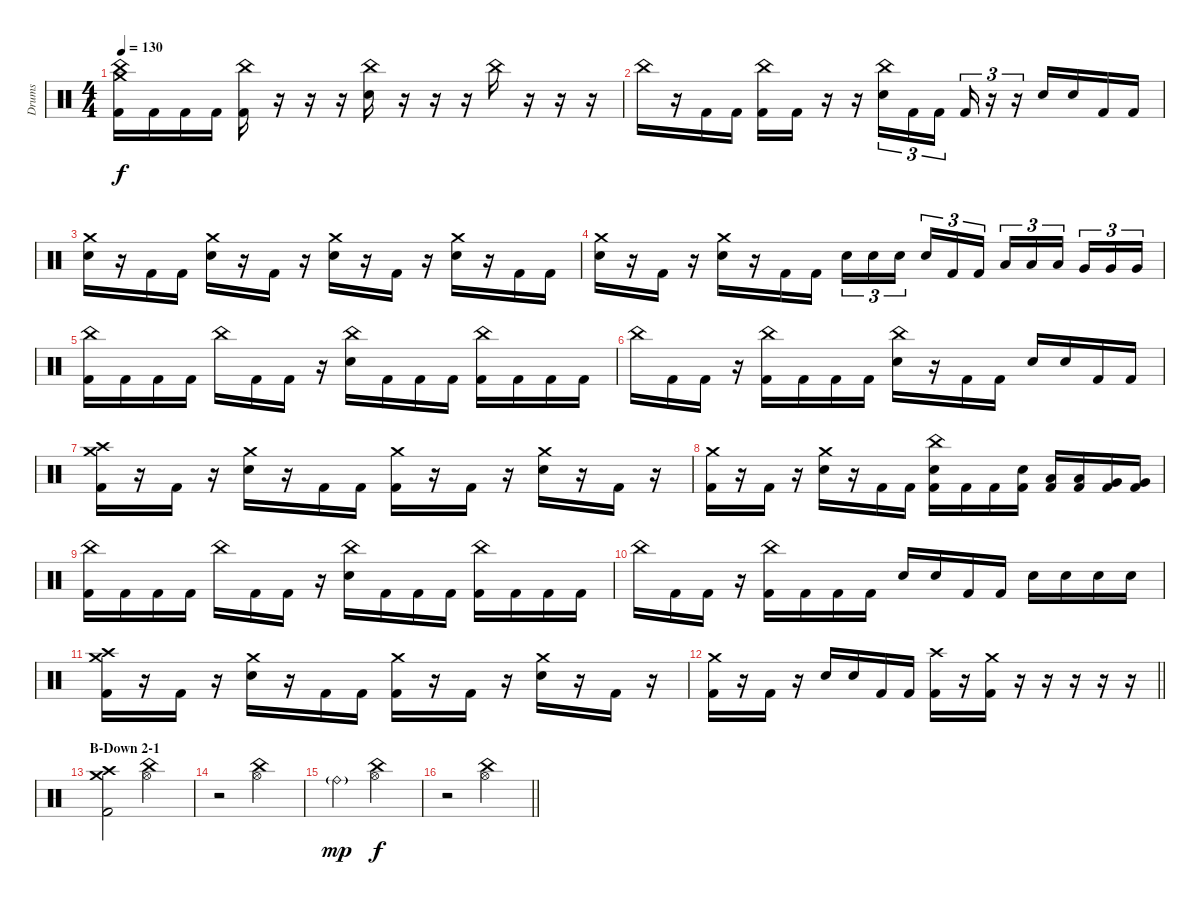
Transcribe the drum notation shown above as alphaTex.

\track ("Drums" "Drums") {instrument percussion}
\staff {score}
\articulation defaults
\ts (4 4)
\tempo 130
\clef neutral
\ks c
("Crash medium (hit)" "China (hit)" "Kick (hit) 2").16{dy f} "Kick (hit) 2".16 "Kick (hit) 2".16 "Kick (hit) 2".16 ("China (hit)" "Kick (hit) 2").16 r.16 r.16 r.16 ("China (hit)" "Electric Snare (hit)").16 r.16 r.16 r.16 "China (hit)".16 r.16 r.16 r.16 |
"China (hit)".16 r.16 "Kick (hit) 2".16 "Kick (hit) 2".16 ("China (hit)" "Kick (hit) 2").16 "Kick (hit) 2".16 r.16 r.16 ("China (hit)" "Electric Snare (hit)").16{tu (3 2)} "Kick (hit) 2".16{tu (3 2)} "Kick (hit) 2".16{tu (3 2) beam splitsecondary} "Kick (hit) 2".16{tu (3 2)} r.16{tu (3 2)} r.16{tu (3 2)} "Electric Snare (hit)".16 "Electric Snare (hit)".16 "Kick (hit) 2".16 "Kick (hit) 2".16 |
("Crash medium (hit)" "Electric Snare (hit)").16 r.16 "Kick (hit) 2".16 "Kick (hit) 2".16 ("Crash medium (hit)" "Electric Snare (hit)").16 r.16 "Kick (hit) 2".16 r.16 ("Crash medium (hit)" "Electric Snare (hit)").16 r.16 "Kick (hit) 2".16 r.16 ("Crash medium (hit)" "Electric Snare (hit)").16 r.16 "Kick (hit) 2".16 "Kick (hit) 2".16 |
("Crash medium (hit)" "Electric Snare (hit)").16 r.16 "Kick (hit) 2".16 r.16 ("Crash medium (hit)" "Electric Snare (hit)").16 r.16 "Kick (hit) 2".16 "Kick (hit) 2".16 "Electric Snare (hit)".16{tu (3 2)} "Electric Snare (hit)".16{tu (3 2)} "Electric Snare (hit)".16{tu (3 2) beam splitsecondary} "Electric Snare (hit)".16{tu (3 2)} "Kick (hit) 2".16{tu (3 2)} "Kick (hit) 2".16{tu (3 2)} "Low Tom (hit)".16{tu (3 2)} "Low Tom (hit)".16{tu (3 2)} "Low Tom (hit)".16{tu (3 2) beam splitsecondary} "Very Low Tom (hit)".16{tu (3 2)} "Very Low Tom (hit)".16{tu (3 2)} "Very Low Tom (hit)".16{tu (3 2)} |
("China (hit)" "Kick (hit) 2").16 "Kick (hit) 2".16 "Kick (hit) 2".16 "Kick (hit) 2".16 "China (hit)".16 "Kick (hit) 2".16 "Kick (hit) 2".16 r.16 ("China (hit)" "Electric Snare (hit)").16 "Kick (hit) 2".16 "Kick (hit) 2".16 "Kick (hit) 2".16 ("China (hit)" "Kick (hit) 2").16 "Kick (hit) 2".16 "Kick (hit) 2".16 "Kick (hit) 2".16 |
"China (hit)".16 "Kick (hit) 2".16 "Kick (hit) 2".16 r.16 ("China (hit)" "Kick (hit) 2").16 "Kick (hit) 2".16 "Kick (hit) 2".16 "Kick (hit) 2".16 ("China (hit)" "Electric Snare (hit)").16 r.16 "Kick (hit) 2".16 "Kick (hit) 2".16 "Electric Snare (hit)".16 "Electric Snare (hit)".16 "Kick (hit) 2".16 "Kick (hit) 2".16 |
("Crash medium (hit)" "Crash high (hit)" "Kick (hit) 2").16 r.16 "Kick (hit) 2".16 r.16 ("Crash medium (hit)" "Electric Snare (hit)").16 r.16 "Kick (hit) 2".16 "Kick (hit) 2".16 ("Crash medium (hit)" "Kick (hit) 2").16 r.16 "Kick (hit) 2".16 r.16 ("Crash medium (hit)" "Electric Snare (hit)").16 r.16 "Kick (hit) 2".16 r.16 |
("Crash medium (hit)" "Kick (hit) 2").16 r.16 "Kick (hit) 2".16 r.16 ("Crash medium (hit)" "Electric Snare (hit)").16 r.16 "Kick (hit) 2".16 "Kick (hit) 2".16 ("China (hit)" "Electric Snare (hit)" "Kick (hit) 2").16 "Kick (hit) 2".16 "Kick (hit) 2".16 ("Electric Snare (hit)" "Kick (hit) 2").16 ("Low Tom (hit)" "Kick (hit) 2").16 ("Low Tom (hit)" "Kick (hit) 2").16 ("Very Low Tom (hit)" "Kick (hit) 2").16 ("Very Low Tom (hit)" "Kick (hit) 2").16 |
("China (hit)" "Kick (hit) 2").16 "Kick (hit) 2".16 "Kick (hit) 2".16 "Kick (hit) 2".16 "China (hit)".16 "Kick (hit) 2".16 "Kick (hit) 2".16 r.16 ("China (hit)" "Electric Snare (hit)").16 "Kick (hit) 2".16 "Kick (hit) 2".16 "Kick (hit) 2".16 ("China (hit)" "Kick (hit) 2").16 "Kick (hit) 2".16 "Kick (hit) 2".16 "Kick (hit) 2".16 |
"China (hit)".16 "Kick (hit) 2".16 "Kick (hit) 2".16 r.16 ("China (hit)" "Kick (hit) 2").16 "Kick (hit) 2".16 "Kick (hit) 2".16 "Kick (hit) 2".16 "Electric Snare (hit)".16 "Electric Snare (hit)".16 "Kick (hit) 2".16 "Kick (hit) 2".16 "Electric Snare (hit)".16 "Electric Snare (hit)".16 "Electric Snare (hit)".16 "Electric Snare (hit)".16 |
("Crash medium (hit)" "Crash high (hit)" "Kick (hit) 2").16 r.16 "Kick (hit) 2".16 r.16 ("Crash medium (hit)" "Electric Snare (hit)").16 r.16 "Kick (hit) 2".16 "Kick (hit) 2".16 ("Crash medium (hit)" "Kick (hit) 2").16 r.16 "Kick (hit) 2".16 r.16 ("Crash medium (hit)" "Electric Snare (hit)").16 r.16 "Kick (hit) 2".16 r.16 |
\barLineRight lightlight
("Crash medium (hit)" "Kick (hit) 2").16 r.16 "Kick (hit) 2".16 r.16 "Electric Snare (hit)".16 "Electric Snare (hit)".16 "Kick (hit) 2".16 "Kick (hit) 2".16 ("Crash high (hit)" "Kick (hit) 2").16 r.16 ("Crash medium (hit)" "Kick (hit) 2").16 r.16 r.16 r.16 r.16 r.16 |
\section ("" "B-Down 2-1")
("Crash medium (hit)" "Crash high (hit)" "Kick (hit) 2").2 ("China (hit)" "Hi-Hat (open)").2 |
r.2 ("China (hit)" "Hi-Hat (open)").2 |
"Ride (bell)"{g}.2{dy mp} ("China (hit)" "Hi-Hat (open)").2{dy f} |
\barLineRight lightlight
r.2 ("China (hit)" "Hi-Hat (open)").2
